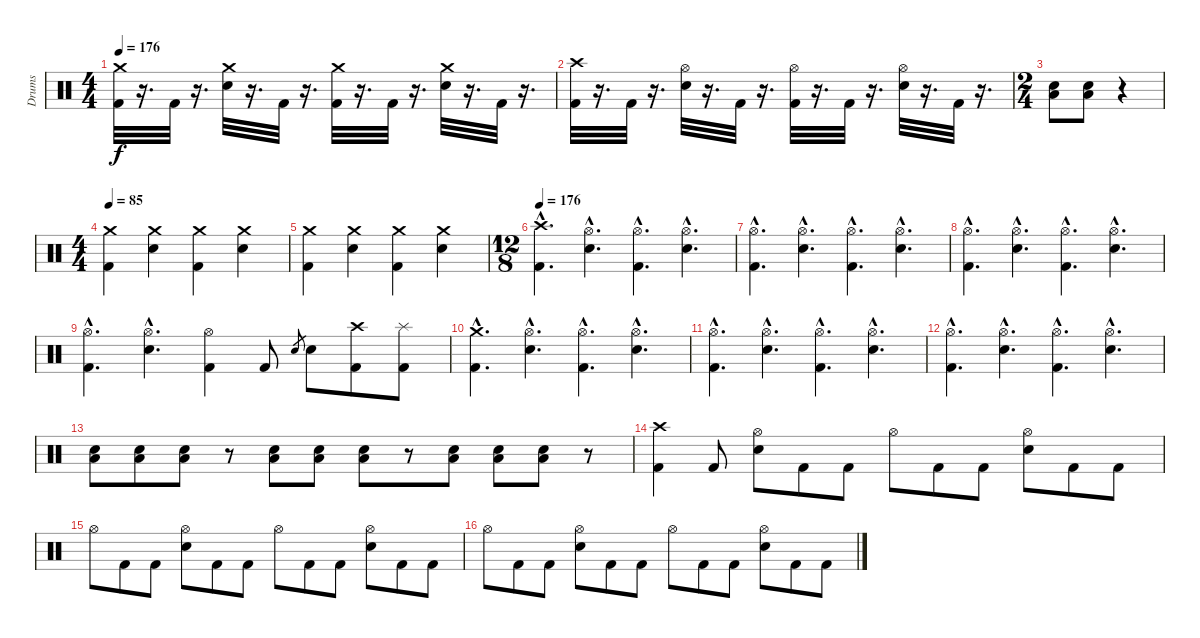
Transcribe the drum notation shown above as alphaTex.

\track ("Drums" "Drums") {instrument percussion}
\staff {score}
\articulation defaults
\ts (4 4)
\tempo 176
\clef neutral
\ks c
("Crash medium (hit)" "Kick (hit) 2").32{dy f} r.16{d} "Kick (hit) 2".32 r.16{d} ("Crash medium (hit)" "Snare (hit) 2").32 r.16{d} "Kick (hit) 2".32 r.16{d} ("Crash medium (hit)" "Kick (hit) 2").32 r.16{d} "Kick (hit) 2".32 r.16{d} ("Crash medium (hit)" "Snare (hit) 2").32 r.16{d} "Kick (hit) 2".32 r.16{d} |
("Kick (hit) 2" "Crash high (hit)").32 r.16{d} "Kick (hit) 2".32 r.16{d} ("Hi-Hat (open)" "Snare (hit) 2").32 r.16{d} "Kick (hit) 2".32 r.16{d} ("Hi-Hat (open)" "Kick (hit) 2").32 r.16{d} "Kick (hit) 2".32 r.16{d} ("Hi-Hat (open)" "Snare (hit) 2").32 r.16{d} "Kick (hit) 2".32 r.16{d} |
\ts (2 4)
("Low Floor Tom (hit)" "Snare (hit) 2").8 ("Low Floor Tom (hit)" "Snare (hit) 2").8 r.4 |
\ts (4 4)
\tempo 85
("Kick (hit) 2" "Crash medium (hit)").4 ("Snare (hit) 2" "Crash medium (hit)").4 ("Kick (hit) 2" "Crash medium (hit)").4 ("Snare (hit) 2" "Crash medium (hit)").4 |
("Kick (hit) 2" "Crash medium (hit)").4 ("Snare (hit) 2" "Crash medium (hit)").4 ("Kick (hit) 2" "Crash medium (hit)").4 ("Snare (hit) 2" "Crash medium (hit)").4 |
\ts (12 8)
\tempo 176
("Crash high (hit)"{hac} "Kick (hit) 2"{hac}).4{d} ("Hi-Hat (open)"{hac} "Snare (hit) 2"{hac}).4{d} ("Hi-Hat (open)"{hac} "Kick (hit) 2"{hac}).4{d} ("Hi-Hat (open)"{hac} "Snare (hit) 2"{hac}).4{d} |
("Hi-Hat (open)"{hac} "Kick (hit) 2"{hac}).4{d} ("Hi-Hat (open)"{hac} "Snare (hit) 2"{hac}).4{d} ("Hi-Hat (open)"{hac} "Kick (hit) 2"{hac}).4{d} ("Hi-Hat (open)"{hac} "Snare (hit) 2"{hac}).4{d} |
("Hi-Hat (open)"{hac} "Kick (hit) 2"{hac}).4{d} ("Hi-Hat (open)"{hac} "Snare (hit) 2"{hac}).4{d} ("Hi-Hat (open)"{hac} "Kick (hit) 2"{hac}).4{d} ("Hi-Hat (open)"{hac} "Snare (hit) 2"{hac}).4{d} |
("Hi-Hat (open)"{hac} "Kick (hit) 2"{hac}).4{d} ("Hi-Hat (open)"{hac} "Snare (hit) 2"{hac}).4{d} ("Hi-Hat (open)" "Kick (hit) 2").4 "Kick (hit) 2".8 "Snare (hit) 2".8{gr} "Snare (hit) 2".8 ("Crash high (hit)" "Kick (hit) 2").8 ("Splash (hit)" "Kick (hit) 2").8 |
("Crash medium (hit)"{hac} "Kick (hit) 2"{hac}).4{d} ("Hi-Hat (open)"{hac} "Snare (hit) 2"{hac}).4{d} ("Hi-Hat (open)"{hac} "Kick (hit) 2"{hac}).4{d} ("Hi-Hat (open)"{hac} "Snare (hit) 2"{hac}).4{d} |
("Hi-Hat (open)"{hac} "Kick (hit) 2"{hac}).4{d} ("Hi-Hat (open)"{hac} "Snare (hit) 2"{hac}).4{d} ("Hi-Hat (open)"{hac} "Kick (hit) 2"{hac}).4{d} ("Hi-Hat (open)"{hac} "Snare (hit) 2"{hac}).4{d} |
("Hi-Hat (open)"{hac} "Kick (hit) 2"{hac}).4{d} ("Hi-Hat (open)"{hac} "Snare (hit) 2"{hac}).4{d} ("Hi-Hat (open)"{hac} "Kick (hit) 2"{hac}).4{d} ("Hi-Hat (open)"{hac} "Snare (hit) 2"{hac}).4{d} |
("Low Floor Tom (hit)" "Snare (hit) 2").8 ("Low Floor Tom (hit)" "Snare (hit) 2").8 ("Low Floor Tom (hit)" "Snare (hit) 2").8 r.8 ("Low Floor Tom (hit)" "Snare (hit) 2").8 ("Snare (hit) 2" "Low Floor Tom (hit)").8 ("Low Floor Tom (hit)" "Snare (hit) 2").8 r.8 ("Low Floor Tom (hit)" "Snare (hit) 2").8 ("Low Floor Tom (hit)" "Snare (hit) 2").8 ("Low Floor Tom (hit)" "Snare (hit) 2").8 r.8 |
("Crash high (hit)" "Kick (hit) 2").4 "Kick (hit) 2".8 ("Hi-Hat (open)" "Snare (hit) 2").8 "Kick (hit) 2".8 "Kick (hit) 2".8 "Hi-Hat (open)".8 "Kick (hit) 2".8 "Kick (hit) 2".8 ("Hi-Hat (open)" "Snare (hit) 2").8 "Kick (hit) 2".8 "Kick (hit) 2".8 |
"Hi-Hat (open)".8 "Kick (hit) 2".8 "Kick (hit) 2".8 ("Hi-Hat (open)" "Snare (hit) 2").8 "Kick (hit) 2".8 "Kick (hit) 2".8 "Hi-Hat (open)".8 "Kick (hit) 2".8 "Kick (hit) 2".8 ("Hi-Hat (open)" "Snare (hit) 2").8 "Kick (hit) 2".8 "Kick (hit) 2".8 |
"Hi-Hat (open)".8 "Kick (hit) 2".8 "Kick (hit) 2".8 ("Hi-Hat (open)" "Snare (hit) 2").8 "Kick (hit) 2".8 "Kick (hit) 2".8 "Hi-Hat (open)".8 "Kick (hit) 2".8 "Kick (hit) 2".8 ("Hi-Hat (open)" "Snare (hit) 2").8 "Kick (hit) 2".8 "Kick (hit) 2".8
